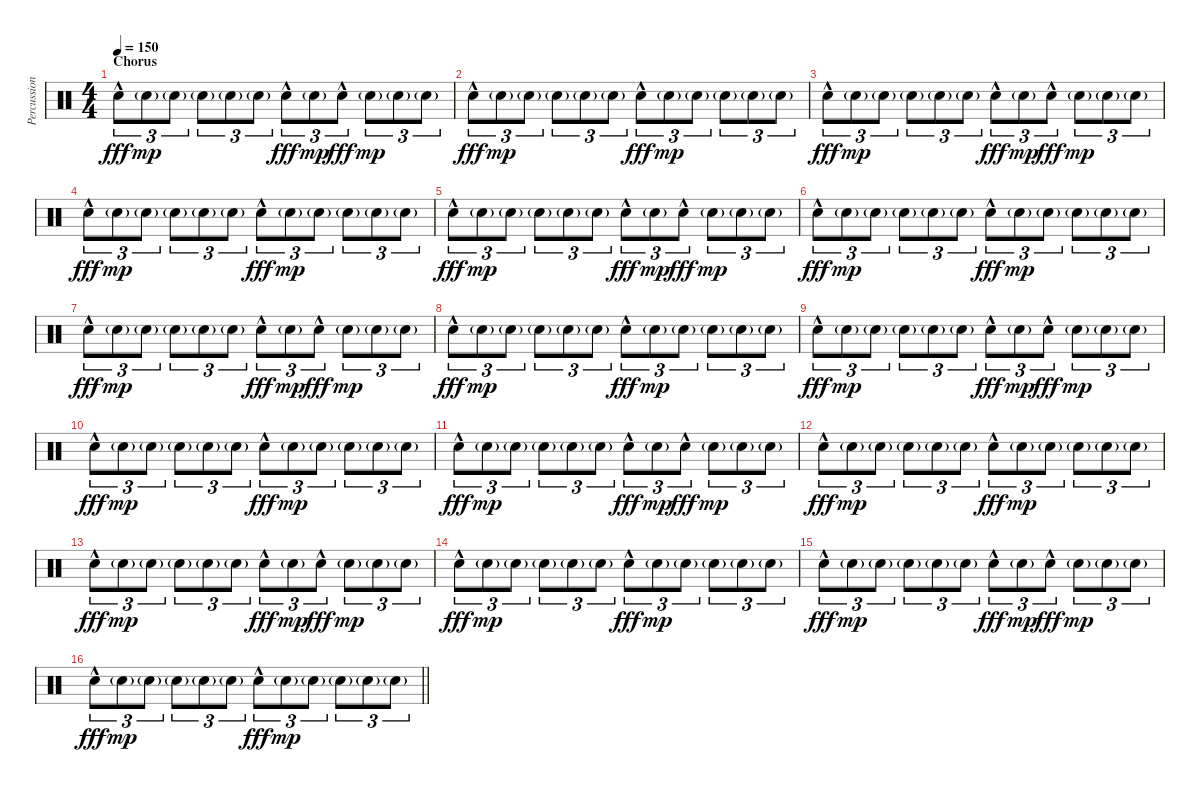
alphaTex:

\track ("Percussion" "Percussion") {instrument percussion}
\staff {score}
\articulation defaults
\ts (4 4)
\section ("" "Chorus")
\tempo 150
\clef neutral
\ks c "Electric Snare (hit)"{hac}.8{tu (3 2) dy fff} "Electric Snare (hit)"{g}.8{tu (3 2) dy mp} "Electric Snare (hit)"{g}.8{tu (3 2)} "Electric Snare (hit)"{g}.8{tu (3 2)} "Electric Snare (hit)"{g}.8{tu (3 2)} "Electric Snare (hit)"{g}.8{tu (3 2)} "Electric Snare (hit)"{hac}.8{tu (3 2) dy fff} "Electric Snare (hit)"{g}.8{tu (3 2) dy mp} "Electric Snare (hit)"{hac}.8{tu (3 2) dy fff} "Electric Snare (hit)"{g}.8{tu (3 2) dy mp} "Electric Snare (hit)"{g}.8{tu (3 2)} "Electric Snare (hit)"{g}.8{tu (3 2)}
|
"Electric Snare (hit)"{hac}.8{tu (3 2) dy fff} "Electric Snare (hit)"{g}.8{tu (3 2) dy mp} "Electric Snare (hit)"{g}.8{tu (3 2)} "Electric Snare (hit)"{g}.8{tu (3 2)} "Electric Snare (hit)"{g}.8{tu (3 2)} "Electric Snare (hit)"{g}.8{tu (3 2)} "Electric Snare (hit)"{hac}.8{tu (3 2) dy fff} "Electric Snare (hit)"{g}.8{tu (3 2) dy mp} "Electric Snare (hit)"{g}.8{tu (3 2)} "Electric Snare (hit)"{g}.8{tu (3 2)} "Electric Snare (hit)"{g}.8{tu (3 2)} "Electric Snare (hit)"{g}.8{tu (3 2)} |
"Electric Snare (hit)"{hac}.8{tu (3 2) dy fff} "Electric Snare (hit)"{g}.8{tu (3 2) dy mp} "Electric Snare (hit)"{g}.8{tu (3 2)} "Electric Snare (hit)"{g}.8{tu (3 2)} "Electric Snare (hit)"{g}.8{tu (3 2)} "Electric Snare (hit)"{g}.8{tu (3 2)} "Electric Snare (hit)"{hac}.8{tu (3 2) dy fff} "Electric Snare (hit)"{g}.8{tu (3 2) dy mp} "Electric Snare (hit)"{hac}.8{tu (3 2) dy fff} "Electric Snare (hit)"{g}.8{tu (3 2) dy mp} "Electric Snare (hit)"{g}.8{tu (3 2)} "Electric Snare (hit)"{g}.8{tu (3 2)} |
"Electric Snare (hit)"{hac}.8{tu (3 2) dy fff} "Electric Snare (hit)"{g}.8{tu (3 2) dy mp} "Electric Snare (hit)"{g}.8{tu (3 2)} "Electric Snare (hit)"{g}.8{tu (3 2)} "Electric Snare (hit)"{g}.8{tu (3 2)} "Electric Snare (hit)"{g}.8{tu (3 2)} "Electric Snare (hit)"{hac}.8{tu (3 2) dy fff} "Electric Snare (hit)"{g}.8{tu (3 2) dy mp} "Electric Snare (hit)"{g}.8{tu (3 2)} "Electric Snare (hit)"{g}.8{tu (3 2)} "Electric Snare (hit)"{g}.8{tu (3 2)} "Electric Snare (hit)"{g}.8{tu (3 2)} |
"Electric Snare (hit)"{hac}.8{tu (3 2) dy fff} "Electric Snare (hit)"{g}.8{tu (3 2) dy mp} "Electric Snare (hit)"{g}.8{tu (3 2)} "Electric Snare (hit)"{g}.8{tu (3 2)} "Electric Snare (hit)"{g}.8{tu (3 2)} "Electric Snare (hit)"{g}.8{tu (3 2)} "Electric Snare (hit)"{hac}.8{tu (3 2) dy fff} "Electric Snare (hit)"{g}.8{tu (3 2) dy mp} "Electric Snare (hit)"{hac}.8{tu (3 2) dy fff} "Electric Snare (hit)"{g}.8{tu (3 2) dy mp} "Electric Snare (hit)"{g}.8{tu (3 2)} "Electric Snare (hit)"{g}.8{tu (3 2)} |
"Electric Snare (hit)"{hac}.8{tu (3 2) dy fff} "Electric Snare (hit)"{g}.8{tu (3 2) dy mp} "Electric Snare (hit)"{g}.8{tu (3 2)} "Electric Snare (hit)"{g}.8{tu (3 2)} "Electric Snare (hit)"{g}.8{tu (3 2)} "Electric Snare (hit)"{g}.8{tu (3 2)} "Electric Snare (hit)"{hac}.8{tu (3 2) dy fff} "Electric Snare (hit)"{g}.8{tu (3 2) dy mp} "Electric Snare (hit)"{g}.8{tu (3 2)} "Electric Snare (hit)"{g}.8{tu (3 2)} "Electric Snare (hit)"{g}.8{tu (3 2)} "Electric Snare (hit)"{g}.8{tu (3 2)} |
"Electric Snare (hit)"{hac}.8{tu (3 2) dy fff} "Electric Snare (hit)"{g}.8{tu (3 2) dy mp} "Electric Snare (hit)"{g}.8{tu (3 2)} "Electric Snare (hit)"{g}.8{tu (3 2)} "Electric Snare (hit)"{g}.8{tu (3 2)} "Electric Snare (hit)"{g}.8{tu (3 2)} "Electric Snare (hit)"{hac}.8{tu (3 2) dy fff} "Electric Snare (hit)"{g}.8{tu (3 2) dy mp} "Electric Snare (hit)"{hac}.8{tu (3 2) dy fff} "Electric Snare (hit)"{g}.8{tu (3 2) dy mp} "Electric Snare (hit)"{g}.8{tu (3 2)} "Electric Snare (hit)"{g}.8{tu (3 2)} |
"Electric Snare (hit)"{hac}.8{tu (3 2) dy fff} "Electric Snare (hit)"{g}.8{tu (3 2) dy mp} "Electric Snare (hit)"{g}.8{tu (3 2)} "Electric Snare (hit)"{g}.8{tu (3 2)} "Electric Snare (hit)"{g}.8{tu (3 2)} "Electric Snare (hit)"{g}.8{tu (3 2)} "Electric Snare (hit)"{hac}.8{tu (3 2) dy fff} "Electric Snare (hit)"{g}.8{tu (3 2) dy mp} "Electric Snare (hit)"{g}.8{tu (3 2)} "Electric Snare (hit)"{g}.8{tu (3 2)} "Electric Snare (hit)"{g}.8{tu (3 2)} "Electric Snare (hit)"{g}.8{tu (3 2)} |
"Electric Snare (hit)"{hac}.8{tu (3 2) dy fff} "Electric Snare (hit)"{g}.8{tu (3 2) dy mp} "Electric Snare (hit)"{g}.8{tu (3 2)} "Electric Snare (hit)"{g}.8{tu (3 2)} "Electric Snare (hit)"{g}.8{tu (3 2)} "Electric Snare (hit)"{g}.8{tu (3 2)} "Electric Snare (hit)"{hac}.8{tu (3 2) dy fff} "Electric Snare (hit)"{g}.8{tu (3 2) dy mp} "Electric Snare (hit)"{hac}.8{tu (3 2) dy fff} "Electric Snare (hit)"{g}.8{tu (3 2) dy mp} "Electric Snare (hit)"{g}.8{tu (3 2)} "Electric Snare (hit)"{g}.8{tu (3 2)} |
"Electric Snare (hit)"{hac}.8{tu (3 2) dy fff} "Electric Snare (hit)"{g}.8{tu (3 2) dy mp} "Electric Snare (hit)"{g}.8{tu (3 2)} "Electric Snare (hit)"{g}.8{tu (3 2)} "Electric Snare (hit)"{g}.8{tu (3 2)} "Electric Snare (hit)"{g}.8{tu (3 2)} "Electric Snare (hit)"{hac}.8{tu (3 2) dy fff} "Electric Snare (hit)"{g}.8{tu (3 2) dy mp} "Electric Snare (hit)"{g}.8{tu (3 2)} "Electric Snare (hit)"{g}.8{tu (3 2)} "Electric Snare (hit)"{g}.8{tu (3 2)} "Electric Snare (hit)"{g}.8{tu (3 2)} |
"Electric Snare (hit)"{hac}.8{tu (3 2) dy fff} "Electric Snare (hit)"{g}.8{tu (3 2) dy mp} "Electric Snare (hit)"{g}.8{tu (3 2)} "Electric Snare (hit)"{g}.8{tu (3 2)} "Electric Snare (hit)"{g}.8{tu (3 2)} "Electric Snare (hit)"{g}.8{tu (3 2)} "Electric Snare (hit)"{hac}.8{tu (3 2) dy fff} "Electric Snare (hit)"{g}.8{tu (3 2) dy mp} "Electric Snare (hit)"{hac}.8{tu (3 2) dy fff} "Electric Snare (hit)"{g}.8{tu (3 2) dy mp} "Electric Snare (hit)"{g}.8{tu (3 2)} "Electric Snare (hit)"{g}.8{tu (3 2)} |
"Electric Snare (hit)"{hac}.8{tu (3 2) dy fff} "Electric Snare (hit)"{g}.8{tu (3 2) dy mp} "Electric Snare (hit)"{g}.8{tu (3 2)} "Electric Snare (hit)"{g}.8{tu (3 2)} "Electric Snare (hit)"{g}.8{tu (3 2)} "Electric Snare (hit)"{g}.8{tu (3 2)} "Electric Snare (hit)"{hac}.8{tu (3 2) dy fff} "Electric Snare (hit)"{g}.8{tu (3 2) dy mp} "Electric Snare (hit)"{g}.8{tu (3 2)} "Electric Snare (hit)"{g}.8{tu (3 2)} "Electric Snare (hit)"{g}.8{tu (3 2)} "Electric Snare (hit)"{g}.8{tu (3 2)} |
"Electric Snare (hit)"{hac}.8{tu (3 2) dy fff} "Electric Snare (hit)"{g}.8{tu (3 2) dy mp} "Electric Snare (hit)"{g}.8{tu (3 2)} "Electric Snare (hit)"{g}.8{tu (3 2)} "Electric Snare (hit)"{g}.8{tu (3 2)} "Electric Snare (hit)"{g}.8{tu (3 2)} "Electric Snare (hit)"{hac}.8{tu (3 2) dy fff} "Electric Snare (hit)"{g}.8{tu (3 2) dy mp} "Electric Snare (hit)"{hac}.8{tu (3 2) dy fff} "Electric Snare (hit)"{g}.8{tu (3 2) dy mp} "Electric Snare (hit)"{g}.8{tu (3 2)} "Electric Snare (hit)"{g}.8{tu (3 2)} |
"Electric Snare (hit)"{hac}.8{tu (3 2) dy fff} "Electric Snare (hit)"{g}.8{tu (3 2) dy mp} "Electric Snare (hit)"{g}.8{tu (3 2)} "Electric Snare (hit)"{g}.8{tu (3 2)} "Electric Snare (hit)"{g}.8{tu (3 2)} "Electric Snare (hit)"{g}.8{tu (3 2)} "Electric Snare (hit)"{hac}.8{tu (3 2) dy fff} "Electric Snare (hit)"{g}.8{tu (3 2) dy mp} "Electric Snare (hit)"{g}.8{tu (3 2)} "Electric Snare (hit)"{g}.8{tu (3 2)} "Electric Snare (hit)"{g}.8{tu (3 2)} "Electric Snare (hit)"{g}.8{tu (3 2)} |
"Electric Snare (hit)"{hac}.8{tu (3 2) dy fff} "Electric Snare (hit)"{g}.8{tu (3 2) dy mp} "Electric Snare (hit)"{g}.8{tu (3 2)} "Electric Snare (hit)"{g}.8{tu (3 2)} "Electric Snare (hit)"{g}.8{tu (3 2)} "Electric Snare (hit)"{g}.8{tu (3 2)} "Electric Snare (hit)"{hac}.8{tu (3 2) dy fff} "Electric Snare (hit)"{g}.8{tu (3 2) dy mp} "Electric Snare (hit)"{hac}.8{tu (3 2) dy fff} "Electric Snare (hit)"{g}.8{tu (3 2) dy mp} "Electric Snare (hit)"{g}.8{tu (3 2)} "Electric Snare (hit)"{g}.8{tu (3 2)} |
\barLineRight lightlight "Electric Snare (hit)"{hac}.8{tu (3 2) dy fff} "Electric Snare (hit)"{g}.8{tu (3 2) dy mp} "Electric Snare (hit)"{g}.8{tu (3 2)} "Electric Snare (hit)"{g}.8{tu (3 2)} "Electric Snare (hit)"{g}.8{tu (3 2)} "Electric Snare (hit)"{g}.8{tu (3 2)} "Electric Snare (hit)"{hac}.8{tu (3 2) dy fff} "Electric Snare (hit)"{g}.8{tu (3 2) dy mp} "Electric Snare (hit)"{g}.8{tu (3 2)} "Electric Snare (hit)"{g}.8{tu (3 2)} "Electric Snare (hit)"{g}.8{tu (3 2)} "Electric Snare (hit)"{g}.8{tu (3 2)}
